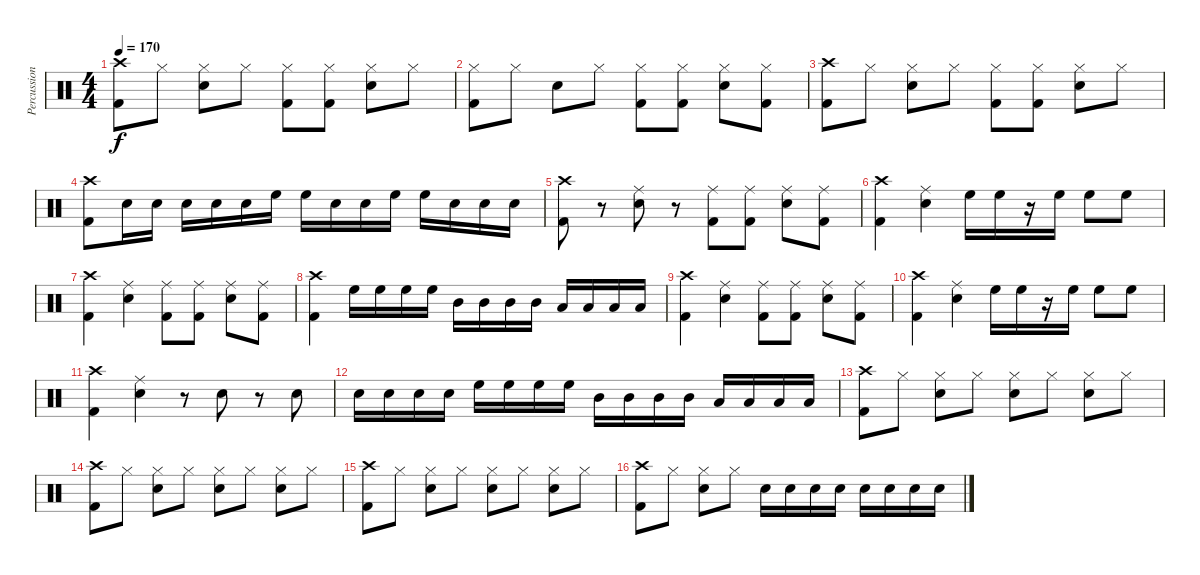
\track ("Percussions" "Percussion") {instrument percussion}
\staff {score}
\articulation defaults
\ts (4 4)
\tempo 170
\clef neutral
\ks c
("Crash high (hit)" "Kick (hit) 2").8{dy f} "Hi-Hat (closed)".8 ("Hi-Hat (closed)" "Snare (hit) 2").8 "Hi-Hat (closed)".8 ("Hi-Hat (closed)" "Kick (hit) 2").8 ("Hi-Hat (closed)" "Kick (hit) 2").8 ("Hi-Hat (closed)" "Snare (hit) 2").8 "Hi-Hat (closed)".8 |
("Kick (hit) 2" "Hi-Hat (closed)").8 "Hi-Hat (closed)".8 "Snare (hit) 2".8 "Hi-Hat (closed)".8 ("Kick (hit) 2" "Hi-Hat (closed)").8 ("Kick (hit) 2" "Hi-Hat (closed)").8 ("Snare (hit) 2" "Hi-Hat (closed)").8 ("Kick (hit) 2" "Hi-Hat (closed)").8 |
("Kick (hit) 2" "Crash high (hit)").8 "Hi-Hat (closed)".8 ("Snare (hit) 2" "Hi-Hat (closed)").8 "Hi-Hat (closed)".8 ("Kick (hit) 2" "Hi-Hat (closed)").8 ("Kick (hit) 2" "Hi-Hat (closed)").8 ("Snare (hit) 2" "Hi-Hat (closed)").8 "Hi-Hat (closed)".8 |
("Crash high (hit)" "Kick (hit) 2").8 "Snare (hit) 2".16 "Snare (hit) 2".16 "Snare (hit) 2".16 "Snare (hit) 2".16 "Snare (hit) 2".16 "High Floor Tom (hit)".16 "High Floor Tom (hit)".16 "Snare (hit) 2".16 "Snare (hit) 2".16 "High Floor Tom (hit)".16 "High Floor Tom (hit)".16 "Snare (hit) 2".16 "Snare (hit) 2".16 "Snare (hit) 2".16 |
("Kick (hit) 2" "Crash high (hit)").8 r.8 ("Ride (middle)" "Snare (hit) 2").8 r.8 ("Ride (middle)" "Kick (hit) 2").8 ("Ride (middle)" "Kick (hit) 2").8 ("Ride (middle)" "Snare (hit) 2").8 ("Ride (middle)" "Kick (hit) 2").8 |
("Kick (hit) 2" "Crash high (hit)").4 ("Snare (hit) 2" "Ride (middle)").4 "High Floor Tom (hit)".16 "High Floor Tom (hit)".16 r.16 "High Floor Tom (hit)".16 "High Floor Tom (hit)".8 "High Floor Tom (hit)".8 |
("Kick (hit) 2" "Crash high (hit)").4 ("Ride (middle)" "Snare (hit) 2").4 ("Kick (hit) 2" "Ride (middle)").8 ("Kick (hit) 2" "Ride (middle)").8 ("Snare (hit) 2" "Ride (middle)").8 ("Kick (hit) 2" "Ride (middle)").8 |
("Crash high (hit)" "Kick (hit) 2").4 "High Floor Tom (hit)".16 "High Floor Tom (hit)".16 "High Floor Tom (hit)".16 "High Floor Tom (hit)".16 "Mid Tom (hit)".16 "Mid Tom (hit)".16 "Mid Tom (hit)".16 "Mid Tom (hit)".16 "Low Floor Tom (hit)".16 "Low Floor Tom (hit)".16 "Low Floor Tom (hit)".16 "Low Floor Tom (hit)".16 |
("Kick (hit) 2" "Crash high (hit)").4 ("Ride (middle)" "Snare (hit) 2").4 ("Kick (hit) 2" "Ride (middle)").8 ("Kick (hit) 2" "Ride (middle)").8 ("Snare (hit) 2" "Ride (middle)").8 ("Kick (hit) 2" "Ride (middle)").8 |
("Crash high (hit)" "Kick (hit) 2").4 ("Ride (middle)" "Snare (hit) 2").4 "High Floor Tom (hit)".16 "High Floor Tom (hit)".16 r.16 "High Floor Tom (hit)".16 "High Floor Tom (hit)".8 "High Floor Tom (hit)".8 |
("Kick (hit) 2" "Crash high (hit)").4 ("Ride (middle)" "Snare (hit) 2").4 r.8 "Snare (hit) 2".8 r.8 "Snare (hit) 2".8 |
"Snare (hit) 2".16 "Snare (hit) 2".16 "Snare (hit) 2".16 "Snare (hit) 2".16 "High Floor Tom (hit)".16 "High Floor Tom (hit)".16 "High Floor Tom (hit)".16 "High Floor Tom (hit)".16 "Mid Tom (hit)".16 "Mid Tom (hit)".16 "Mid Tom (hit)".16 "Mid Tom (hit)".16 "Low Floor Tom (hit)".16 "Low Floor Tom (hit)".16 "Low Floor Tom (hit)".16 "Low Floor Tom (hit)".16 |
("Crash high (hit)" "Kick (hit) 2").8 "Hi-Hat (closed)".8 ("Snare (hit) 2" "Hi-Hat (closed)").8 "Hi-Hat (closed)".8 ("Snare (hit) 2" "Hi-Hat (closed)").8 "Hi-Hat (closed)".8 ("Snare (hit) 2" "Hi-Hat (closed)").8 "Hi-Hat (closed)".8 |
("Crash high (hit)" "Kick (hit) 2").8 "Hi-Hat (closed)".8 ("Snare (hit) 2" "Hi-Hat (closed)").8 "Hi-Hat (closed)".8 ("Snare (hit) 2" "Hi-Hat (closed)").8 "Hi-Hat (closed)".8 ("Snare (hit) 2" "Hi-Hat (closed)").8 "Hi-Hat (closed)".8 |
("Crash high (hit)" "Kick (hit) 2").8 "Hi-Hat (closed)".8 ("Snare (hit) 2" "Hi-Hat (closed)").8 "Hi-Hat (closed)".8 ("Snare (hit) 2" "Hi-Hat (closed)").8 "Hi-Hat (closed)".8 ("Snare (hit) 2" "Hi-Hat (closed)").8 "Hi-Hat (closed)".8 |
("Crash high (hit)" "Kick (hit) 2").8 "Hi-Hat (closed)".8 ("Snare (hit) 2" "Hi-Hat (closed)").8 "Hi-Hat (closed)".8 "Snare (hit) 2".16 "Snare (hit) 2".16 "Snare (hit) 2".16 "Snare (hit) 2".16 "Snare (hit) 2".16 "Snare (hit) 2".16 "Snare (hit) 2".16 "Snare (hit) 2".16
